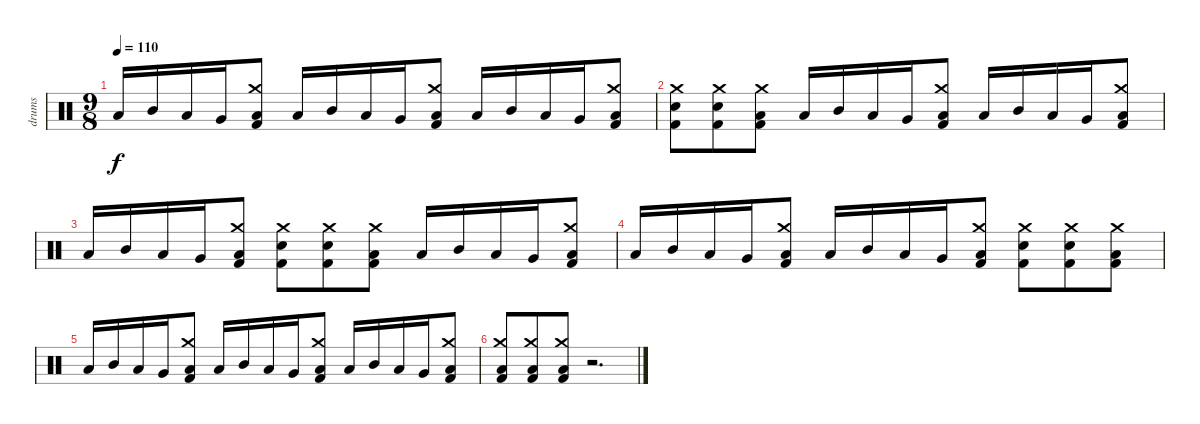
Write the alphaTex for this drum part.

\track ("drums" "drums") {instrument percussion}
\staff {score}
\articulation defaults
\ts (9 8)
\tempo 110
\clef neutral
\ks c "Low Tom (hit)".16{dy f} "Mid Tom (hit)".16 "Low Tom (hit)".16 "Very Low Tom (hit)".16
("Low Floor Tom (hit)" "Crash medium (hit)" "Kick (hit) 2").8 "Low Tom (hit)".16 "Mid Tom (hit)".16 "Low Tom (hit)".16 "Very Low Tom (hit)".16 ("Low Floor Tom (hit)" "Crash medium (hit)" "Kick (hit) 2").8 "Low Tom (hit)".16 "Mid Tom (hit)".16 "Low Tom (hit)".16 "Very Low Tom (hit)".16 ("Low Floor Tom (hit)" "Crash medium (hit)" "Kick (hit) 2").8 |
("Electric Snare (hit)" "Crash medium (hit)" "Kick (hit) 2").8 ("Electric Snare (hit)" "Crash medium (hit)" "Kick (hit) 2").8 ("Low Floor Tom (hit)" "Crash medium (hit)" "Kick (hit) 2").8 "Low Tom (hit)".16 "Mid Tom (hit)".16 "Low Tom (hit)".16 "Very Low Tom (hit)".16 ("Low Floor Tom (hit)" "Crash medium (hit)" "Kick (hit) 2").8 "Low Tom (hit)".16 "Mid Tom (hit)".16 "Low Tom (hit)".16 "Very Low Tom (hit)".16 ("Low Floor Tom (hit)" "Crash medium (hit)" "Kick (hit) 2").8 |
"Low Tom (hit)".16 "Mid Tom (hit)".16 "Low Tom (hit)".16 "Very Low Tom (hit)".16 ("Low Floor Tom (hit)" "Crash medium (hit)" "Kick (hit) 2").8 ("Electric Snare (hit)" "Crash medium (hit)" "Kick (hit) 2").8 ("Electric Snare (hit)" "Crash medium (hit)" "Kick (hit) 2").8 ("Low Floor Tom (hit)" "Crash medium (hit)" "Kick (hit) 2").8 "Low Tom (hit)".16 "Mid Tom (hit)".16 "Low Tom (hit)".16 "Very Low Tom (hit)".16 ("Low Floor Tom (hit)" "Crash medium (hit)" "Kick (hit) 2").8 |
"Low Tom (hit)".16 "Mid Tom (hit)".16 "Low Tom (hit)".16 "Very Low Tom (hit)".16 ("Low Floor Tom (hit)" "Crash medium (hit)" "Kick (hit) 2").8 "Low Tom (hit)".16 "Mid Tom (hit)".16 "Low Tom (hit)".16 "Very Low Tom (hit)".16 ("Low Floor Tom (hit)" "Crash medium (hit)" "Kick (hit) 2").8 ("Electric Snare (hit)" "Crash medium (hit)" "Kick (hit) 2").8 ("Electric Snare (hit)" "Crash medium (hit)" "Kick (hit) 2").8 ("Low Floor Tom (hit)" "Crash medium (hit)" "Kick (hit) 2").8 |
"Low Tom (hit)".16 "Mid Tom (hit)".16 "Low Tom (hit)".16 "Very Low Tom (hit)".16 ("Low Floor Tom (hit)" "Crash medium (hit)" "Kick (hit) 2").8 "Low Tom (hit)".16 "Mid Tom (hit)".16 "Low Tom (hit)".16 "Very Low Tom (hit)".16 ("Low Floor Tom (hit)" "Crash medium (hit)" "Kick (hit) 2").8 "Low Tom (hit)".16 "Mid Tom (hit)".16 "Low Tom (hit)".16 "Very Low Tom (hit)".16 ("Low Floor Tom (hit)" "Crash medium (hit)" "Kick (hit) 2").8 |
("Low Floor Tom (hit)" "Crash medium (hit)" "Kick (hit) 2").8 ("Low Floor Tom (hit)" "Crash medium (hit)" "Kick (hit) 2").8 ("Low Floor Tom (hit)" "Crash medium (hit)" "Kick (hit) 2").8 r.2{d}
